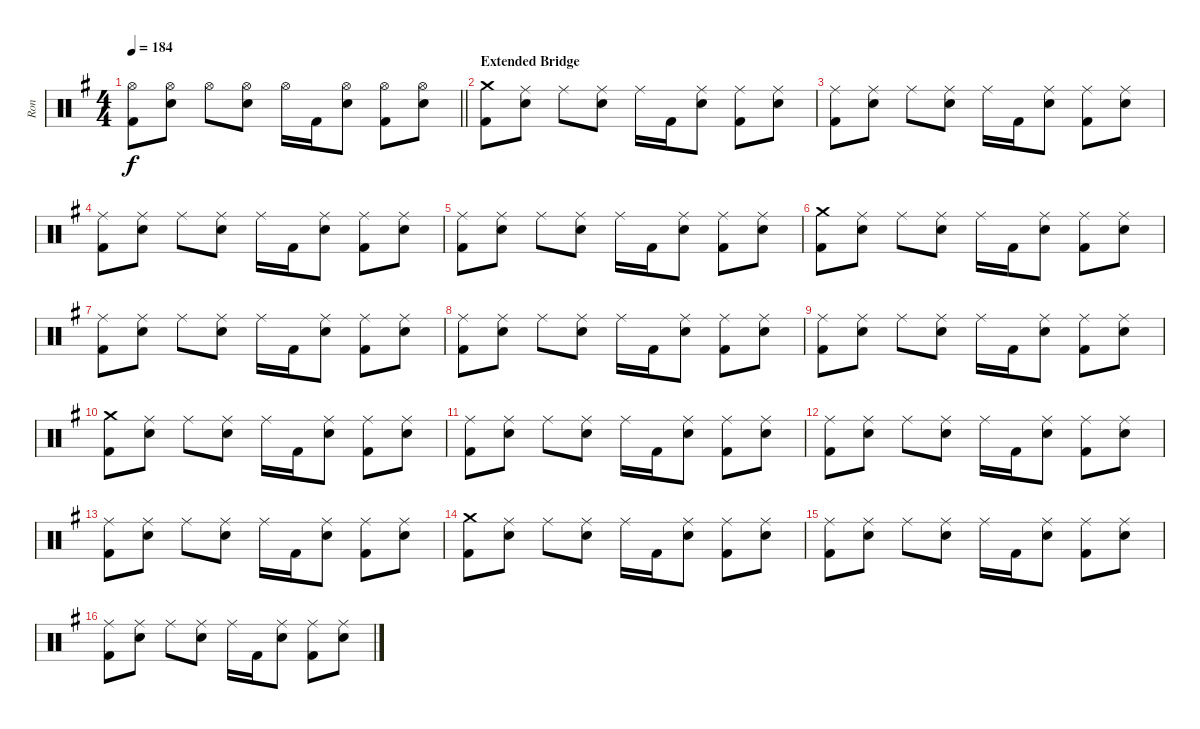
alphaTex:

\track ("Ron" "Ron") {instrument percussion}
\staff {score}
\articulation defaults
\ts (4 4)
\tempo 184
\clef neutral
\barLineRight lightlight
\ks eminor
("Hi-Hat (open)" "Kick (hit) 2").8{dy f} ("Hi-Hat (open)" "Electric Snare (hit)").8 "Hi-Hat (open)".8 ("Hi-Hat (open)" "Electric Snare (hit)").8 "Hi-Hat (open)".16 "Kick (hit) 2".16 ("Hi-Hat (open)" "Electric Snare (hit)").8 ("Hi-Hat (open)" "Kick (hit) 2").8 ("Hi-Hat (open)" "Electric Snare (hit)").8 |
\section ("" "Extended Bridge")
("Crash medium (hit)" "Kick (hit) 2").8 ("Ride (middle)" "Electric Snare (hit)").8 "Ride (middle)".8 ("Ride (middle)" "Electric Snare (hit)").8 "Ride (middle)".16 "Kick (hit) 2".16 ("Ride (middle)" "Electric Snare (hit)").8 ("Ride (middle)" "Kick (hit) 2").8 ("Ride (middle)" "Electric Snare (hit)").8 |
("Ride (middle)" "Kick (hit) 2").8 ("Ride (middle)" "Electric Snare (hit)").8 "Ride (middle)".8 ("Ride (middle)" "Electric Snare (hit)").8 "Ride (middle)".16 "Kick (hit) 2".16 ("Ride (middle)" "Electric Snare (hit)").8 ("Ride (middle)" "Kick (hit) 2").8 ("Ride (middle)" "Electric Snare (hit)").8 |
("Ride (middle)" "Kick (hit) 2").8 ("Ride (middle)" "Electric Snare (hit)").8 "Ride (middle)".8 ("Ride (middle)" "Electric Snare (hit)").8 "Ride (middle)".16 "Kick (hit) 2".16 ("Ride (middle)" "Electric Snare (hit)").8 ("Ride (middle)" "Kick (hit) 2").8 ("Ride (middle)" "Electric Snare (hit)").8 |
("Ride (middle)" "Kick (hit) 2").8 ("Ride (middle)" "Electric Snare (hit)").8 "Ride (middle)".8 ("Ride (middle)" "Electric Snare (hit)").8 "Ride (middle)".16 "Kick (hit) 2".16 ("Ride (middle)" "Electric Snare (hit)").8 ("Ride (middle)" "Kick (hit) 2").8 ("Ride (middle)" "Electric Snare (hit)").8 |
("Crash medium (hit)" "Kick (hit) 2").8 ("Ride (middle)" "Electric Snare (hit)").8 "Ride (middle)".8 ("Ride (middle)" "Electric Snare (hit)").8 "Ride (middle)".16 "Kick (hit) 2".16 ("Ride (middle)" "Electric Snare (hit)").8 ("Ride (middle)" "Kick (hit) 2").8 ("Ride (middle)" "Electric Snare (hit)").8 |
("Ride (middle)" "Kick (hit) 2").8 ("Ride (middle)" "Electric Snare (hit)").8 "Ride (middle)".8 ("Ride (middle)" "Electric Snare (hit)").8 "Ride (middle)".16 "Kick (hit) 2".16 ("Ride (middle)" "Electric Snare (hit)").8 ("Ride (middle)" "Kick (hit) 2").8 ("Ride (middle)" "Electric Snare (hit)").8 |
("Ride (middle)" "Kick (hit) 2").8 ("Ride (middle)" "Electric Snare (hit)").8 "Ride (middle)".8 ("Ride (middle)" "Electric Snare (hit)").8 "Ride (middle)".16 "Kick (hit) 2".16 ("Ride (middle)" "Electric Snare (hit)").8 ("Ride (middle)" "Kick (hit) 2").8 ("Ride (middle)" "Electric Snare (hit)").8 |
("Ride (middle)" "Kick (hit) 2").8 ("Ride (middle)" "Electric Snare (hit)").8 "Ride (middle)".8 ("Ride (middle)" "Electric Snare (hit)").8 "Ride (middle)".16 "Kick (hit) 2".16 ("Ride (middle)" "Electric Snare (hit)").8 ("Ride (middle)" "Kick (hit) 2").8 ("Ride (middle)" "Electric Snare (hit)").8 |
("Crash medium (hit)" "Kick (hit) 2").8 ("Ride (middle)" "Electric Snare (hit)").8 "Ride (middle)".8 ("Ride (middle)" "Electric Snare (hit)").8 "Ride (middle)".16 "Kick (hit) 2".16 ("Ride (middle)" "Electric Snare (hit)").8 ("Ride (middle)" "Kick (hit) 2").8 ("Ride (middle)" "Electric Snare (hit)").8 |
("Ride (middle)" "Kick (hit) 2").8 ("Ride (middle)" "Electric Snare (hit)").8 "Ride (middle)".8 ("Ride (middle)" "Electric Snare (hit)").8 "Ride (middle)".16 "Kick (hit) 2".16 ("Ride (middle)" "Electric Snare (hit)").8 ("Ride (middle)" "Kick (hit) 2").8 ("Ride (middle)" "Electric Snare (hit)").8 |
("Ride (middle)" "Kick (hit) 2").8 ("Ride (middle)" "Electric Snare (hit)").8 "Ride (middle)".8 ("Ride (middle)" "Electric Snare (hit)").8 "Ride (middle)".16 "Kick (hit) 2".16 ("Ride (middle)" "Electric Snare (hit)").8 ("Ride (middle)" "Kick (hit) 2").8 ("Ride (middle)" "Electric Snare (hit)").8 |
("Ride (middle)" "Kick (hit) 2").8 ("Ride (middle)" "Electric Snare (hit)").8 "Ride (middle)".8 ("Ride (middle)" "Electric Snare (hit)").8 "Ride (middle)".16 "Kick (hit) 2".16 ("Ride (middle)" "Electric Snare (hit)").8 ("Ride (middle)" "Kick (hit) 2").8 ("Ride (middle)" "Electric Snare (hit)").8 |
("Crash medium (hit)" "Kick (hit) 2").8 ("Ride (middle)" "Electric Snare (hit)").8 "Ride (middle)".8 ("Ride (middle)" "Electric Snare (hit)").8 "Ride (middle)".16 "Kick (hit) 2".16 ("Ride (middle)" "Electric Snare (hit)").8 ("Ride (middle)" "Kick (hit) 2").8 ("Ride (middle)" "Electric Snare (hit)").8 |
("Ride (middle)" "Kick (hit) 2").8 ("Ride (middle)" "Electric Snare (hit)").8 "Ride (middle)".8 ("Ride (middle)" "Electric Snare (hit)").8 "Ride (middle)".16 "Kick (hit) 2".16 ("Ride (middle)" "Electric Snare (hit)").8 ("Ride (middle)" "Kick (hit) 2").8 ("Ride (middle)" "Electric Snare (hit)").8 |
("Ride (middle)" "Kick (hit) 2").8 ("Ride (middle)" "Electric Snare (hit)").8 "Ride (middle)".8 ("Ride (middle)" "Electric Snare (hit)").8 "Ride (middle)".16 "Kick (hit) 2".16 ("Ride (middle)" "Electric Snare (hit)").8 ("Ride (middle)" "Kick (hit) 2").8 ("Ride (middle)" "Electric Snare (hit)").8
